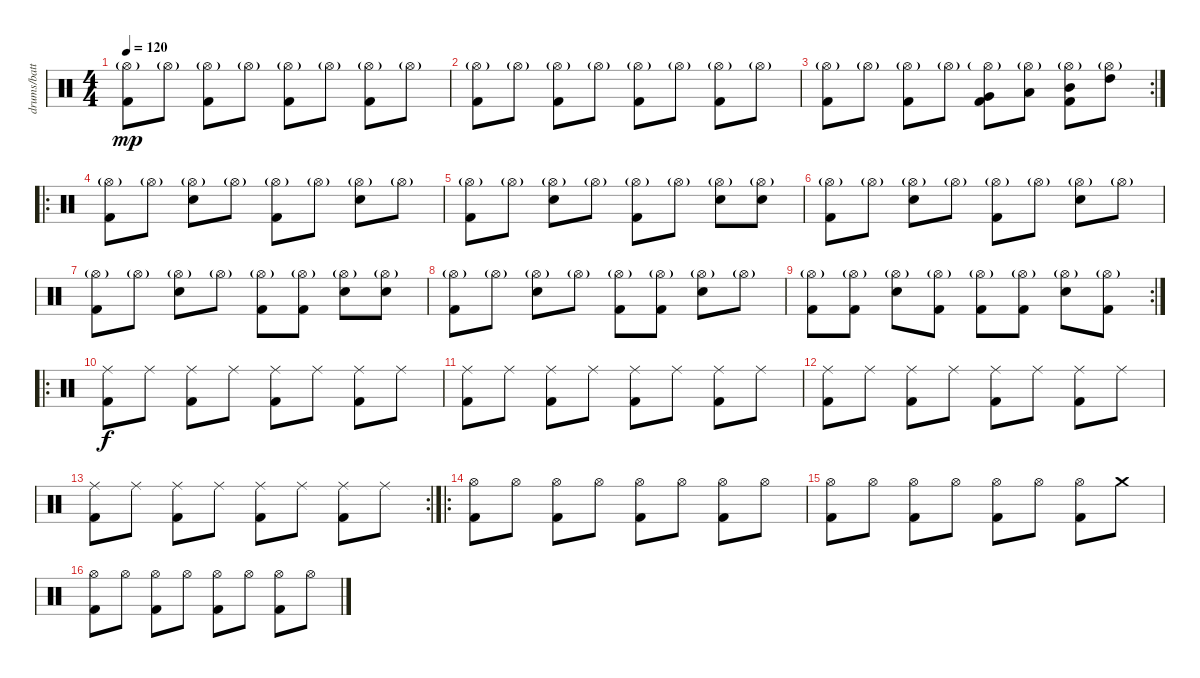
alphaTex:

\track ("drums/battery" "drums/batt") {instrument percussion}
\staff {score}
\articulation defaults
\ts (4 4)
\tempo 120
\clef neutral
\ks c
("Kick (hit) 2" "Hi-Hat (open)"{g}).8{dy mp} "Hi-Hat (open)"{g}.8 ("Kick (hit) 2" "Hi-Hat (open)"{g}).8 "Hi-Hat (open)"{g}.8 ("Kick (hit) 2" "Hi-Hat (open)"{g}).8 "Hi-Hat (open)"{g}.8 ("Kick (hit) 2" "Hi-Hat (open)"{g}).8 "Hi-Hat (open)"{g}.8 |
("Kick (hit) 2" "Hi-Hat (open)"{g}).8 "Hi-Hat (open)"{g}.8 ("Kick (hit) 2" "Hi-Hat (open)"{g}).8 "Hi-Hat (open)"{g}.8 ("Kick (hit) 2" "Hi-Hat (open)"{g}).8 "Hi-Hat (open)"{g}.8 ("Kick (hit) 2" "Hi-Hat (open)"{g}).8 "Hi-Hat (open)"{g}.8 |
\rc 2
("Kick (hit) 2" "Hi-Hat (open)"{g}).8 "Hi-Hat (open)"{g}.8 ("Kick (hit) 2" "Hi-Hat (open)"{g}).8 "Hi-Hat (open)"{g}.8 ("Kick (hit) 2" "Very Low Tom (hit)" "Hi-Hat (open)"{g}).8 ("Low Tom (hit)" "Hi-Hat (open)"{g}).8 ("Kick (hit) 2" "Mid Tom (hit)" "Hi-Hat (open)"{g}).8 ("High Tom (hit)" "Hi-Hat (open)"{g}).8 |
\ro
("Kick (hit) 2" "Hi-Hat (open)"{g}).8 "Hi-Hat (open)"{g}.8 ("Electric Snare (hit)" "Hi-Hat (open)"{g}).8 "Hi-Hat (open)"{g}.8 ("Kick (hit) 2" "Hi-Hat (open)"{g}).8 "Hi-Hat (open)"{g}.8 ("Electric Snare (hit)" "Hi-Hat (open)"{g}).8 "Hi-Hat (open)"{g}.8 |
("Kick (hit) 2" "Hi-Hat (open)"{g}).8 "Hi-Hat (open)"{g}.8 ("Electric Snare (hit)" "Hi-Hat (open)"{g}).8 "Hi-Hat (open)"{g}.8 ("Kick (hit) 2" "Hi-Hat (open)"{g}).8 "Hi-Hat (open)"{g}.8 ("Electric Snare (hit)" "Hi-Hat (open)"{g}).8 ("Electric Snare (hit)" "Hi-Hat (open)"{g}).8 |
("Kick (hit) 2" "Hi-Hat (open)"{g}).8 "Hi-Hat (open)"{g}.8 ("Electric Snare (hit)" "Hi-Hat (open)"{g}).8 "Hi-Hat (open)"{g}.8 ("Kick (hit) 2" "Hi-Hat (open)"{g}).8 "Hi-Hat (open)"{g}.8 ("Electric Snare (hit)" "Hi-Hat (open)"{g}).8 "Hi-Hat (open)"{g}.8 |
("Kick (hit) 2" "Hi-Hat (open)"{g}).8 "Hi-Hat (open)"{g}.8 ("Electric Snare (hit)" "Hi-Hat (open)"{g}).8 "Hi-Hat (open)"{g}.8 ("Kick (hit) 2" "Hi-Hat (open)"{g}).8 ("Kick (hit) 2" "Hi-Hat (open)"{g}).8 ("Electric Snare (hit)" "Hi-Hat (open)"{g}).8 ("Electric Snare (hit)" "Hi-Hat (open)"{g}).8 |
("Kick (hit) 2" "Hi-Hat (open)"{g}).8 "Hi-Hat (open)"{g}.8 ("Electric Snare (hit)" "Hi-Hat (open)"{g}).8 "Hi-Hat (open)"{g}.8 ("Kick (hit) 2" "Hi-Hat (open)"{g}).8 ("Kick (hit) 2" "Hi-Hat (open)"{g}).8 ("Electric Snare (hit)" "Hi-Hat (open)"{g}).8 "Hi-Hat (open)"{g}.8 |
\rc 2
("Kick (hit) 2" "Hi-Hat (open)"{g}).8 ("Kick (hit) 2" "Hi-Hat (open)"{g}).8 ("Electric Snare (hit)" "Hi-Hat (open)"{g}).8 ("Kick (hit) 2" "Hi-Hat (open)"{g}).8 ("Kick (hit) 2" "Hi-Hat (open)"{g}).8 ("Kick (hit) 2" "Hi-Hat (open)"{g}).8 ("Electric Snare (hit)" "Hi-Hat (open)"{g}).8 ("Kick (hit) 2" "Hi-Hat (open)"{g}).8 |
\ro
("Ride (middle)" "Kick (hit) 2").8{dy f} "Ride (middle)".8 ("Ride (middle)" "Kick (hit) 2").8 "Ride (middle)".8 ("Ride (middle)" "Kick (hit) 2").8 "Ride (middle)".8 ("Ride (middle)" "Kick (hit) 2").8 "Ride (middle)".8 |
("Ride (middle)" "Kick (hit) 2").8 "Ride (middle)".8 ("Ride (middle)" "Kick (hit) 2").8 "Ride (middle)".8 ("Ride (middle)" "Kick (hit) 2").8 "Ride (middle)".8 ("Ride (middle)" "Kick (hit) 2").8 "Ride (middle)".8 |
("Ride (middle)" "Kick (hit) 2").8 "Ride (middle)".8 ("Ride (middle)" "Kick (hit) 2").8 "Ride (middle)".8 ("Ride (middle)" "Kick (hit) 2").8 "Ride (middle)".8 ("Ride (middle)" "Kick (hit) 2").8 "Ride (middle)".8 |
\rc 2
("Ride (middle)" "Kick (hit) 2").8 "Ride (middle)".8 ("Ride (middle)" "Kick (hit) 2").8 "Ride (middle)".8 ("Ride (middle)" "Kick (hit) 2").8 "Ride (middle)".8 ("Ride (middle)" "Kick (hit) 2").8 "Ride (middle)".8 |
\ro
("Hi-Hat (open)" "Kick (hit) 2").8 "Hi-Hat (open)".8 ("Hi-Hat (open)" "Kick (hit) 2").8 "Hi-Hat (open)".8 ("Hi-Hat (open)" "Kick (hit) 2").8 "Hi-Hat (open)".8 ("Hi-Hat (open)" "Kick (hit) 2").8 "Hi-Hat (open)".8 |
("Hi-Hat (open)" "Kick (hit) 2").8 "Hi-Hat (open)".8 ("Hi-Hat (open)" "Kick (hit) 2").8 "Hi-Hat (open)".8 ("Hi-Hat (open)" "Kick (hit) 2").8 "Hi-Hat (open)".8 ("Hi-Hat (open)" "Kick (hit) 2").8 "Crash medium (hit)".8 |
("Hi-Hat (open)" "Kick (hit) 2").8 "Hi-Hat (open)".8 ("Hi-Hat (open)" "Kick (hit) 2").8 "Hi-Hat (open)".8 ("Hi-Hat (open)" "Kick (hit) 2").8 "Hi-Hat (open)".8 ("Hi-Hat (open)" "Kick (hit) 2").8 "Hi-Hat (open)".8
